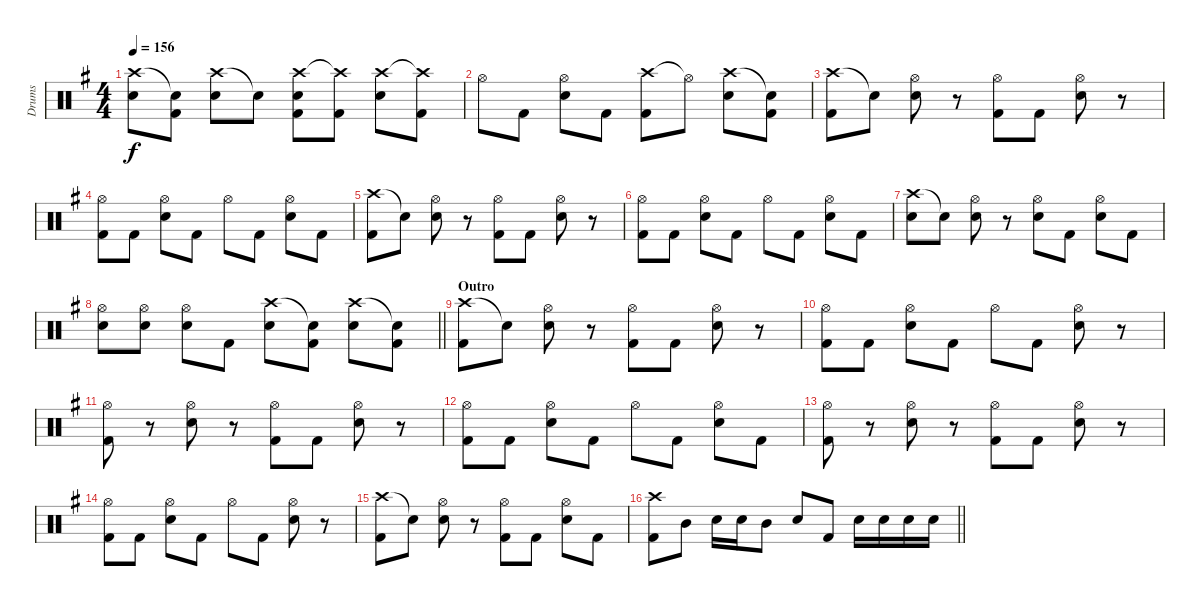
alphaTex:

\track ("Drums" "Drums") {instrument percussion}
\staff {score}
\articulation defaults
\ts (4 4)
\tempo 156
\clef neutral
\ks g
("Crash high (hit)" "Snare (hit) 2").8{dy f} ("Snare (hit)"{t} "Kick (hit) 2").8 ("Crash high (hit)" "Snare (hit) 2").8 "Snare (hit)"{t}.8 ("Crash high (hit)" "Snare (hit) 2" "Kick (hit) 2").8 ("Crash high (hit)"{t} "Kick (hit) 2").8 ("Crash high (hit)" "Snare (hit) 2").8 ("Crash high (hit)"{t} "Kick (hit) 2").8 |
"Hi-Hat (open)".8 "Kick (hit) 2".8 ("Hi-Hat (open)" "Snare (hit) 2").8 "Kick (hit) 2".8 ("Crash high (hit)" "Kick (hit) 2").8 "Hi-Hat (open)"{t}.8 ("Crash high (hit)" "Snare (hit) 2").8 ("Snare (hit)"{t} "Kick (hit) 2").8 |
("Crash high (hit)" "Kick (hit) 2").8 "Snare (hit)"{t}.8 ("Hi-Hat (open)" "Snare (hit) 2").8 r.8 ("Hi-Hat (open)" "Kick (hit) 2").8 "Kick (hit) 2".8 ("Hi-Hat (open)" "Snare (hit) 2").8 r.8 |
("Hi-Hat (open)" "Kick (hit) 2").8 "Kick (hit) 2".8 ("Hi-Hat (open)" "Snare (hit) 2").8 "Kick (hit) 2".8 "Hi-Hat (open)".8 "Kick (hit) 2".8 ("Hi-Hat (open)" "Snare (hit) 2").8 "Kick (hit) 2".8 |
("Crash high (hit)" "Kick (hit) 2").8 "Snare (hit)"{t}.8 ("Hi-Hat (open)" "Snare (hit) 2").8 r.8 ("Hi-Hat (open)" "Kick (hit) 2").8 "Kick (hit) 2".8 ("Hi-Hat (open)" "Snare (hit) 2").8 r.8 |
("Hi-Hat (open)" "Kick (hit) 2").8 "Kick (hit) 2".8 ("Hi-Hat (open)" "Snare (hit) 2").8 "Kick (hit) 2".8 "Hi-Hat (open)".8 "Kick (hit) 2".8 ("Hi-Hat (open)" "Snare (hit) 2").8 "Kick (hit) 2".8 |
("Crash high (hit)" "Snare (hit) 2").8 "Snare (hit)"{t}.8 ("Hi-Hat (open)" "Snare (hit) 2").8 r.8 ("Hi-Hat (open)" "Snare (hit) 2").8 "Kick (hit) 2".8 ("Hi-Hat (open)" "Snare (hit) 2").8 "Kick (hit) 2".8 |
\barLineRight lightlight
("Hi-Hat (open)" "Snare (hit) 2").8 ("Hi-Hat (open)" "Snare (hit) 2").8 ("Hi-Hat (open)" "Snare (hit) 2").8 "Kick (hit) 2".8 ("Crash high (hit)" "Snare (hit) 2").8 ("Snare (hit)"{t} "Kick (hit) 2").8 ("Crash high (hit)" "Snare (hit) 2").8 ("Snare (hit)"{t} "Kick (hit) 2").8 |
\section ("" "Outro")
("Crash high (hit)" "Kick (hit) 2").8 "Snare (hit)"{t}.8 ("Hi-Hat (open)" "Snare (hit) 2").8 r.8 ("Hi-Hat (open)" "Kick (hit) 2").8 "Kick (hit) 2".8 ("Hi-Hat (open)" "Snare (hit) 2").8 r.8 |
("Hi-Hat (open)" "Kick (hit) 2").8 "Kick (hit) 2".8 ("Hi-Hat (open)" "Snare (hit) 2").8 "Kick (hit) 2".8 "Hi-Hat (open)".8 "Kick (hit) 2".8 ("Hi-Hat (open)" "Snare (hit) 2").8 r.8 |
("Hi-Hat (open)" "Kick (hit) 2").8 r.8 ("Hi-Hat (open)" "Snare (hit) 2").8 r.8 ("Hi-Hat (open)" "Kick (hit) 2").8 "Kick (hit) 2".8 ("Hi-Hat (open)" "Snare (hit) 2").8 r.8 |
("Hi-Hat (open)" "Kick (hit) 2").8 "Kick (hit) 2".8 ("Hi-Hat (open)" "Snare (hit) 2").8 "Kick (hit) 2".8 "Hi-Hat (open)".8 "Kick (hit) 2".8 ("Hi-Hat (open)" "Snare (hit) 2").8 "Kick (hit) 2".8 |
("Hi-Hat (open)" "Kick (hit) 2").8 r.8 ("Hi-Hat (open)" "Snare (hit) 2").8 r.8 ("Hi-Hat (open)" "Kick (hit) 2").8 "Kick (hit) 2".8 ("Hi-Hat (open)" "Snare (hit) 2").8 r.8 |
("Hi-Hat (open)" "Kick (hit) 2").8 "Kick (hit) 2".8 ("Hi-Hat (open)" "Snare (hit) 2").8 "Kick (hit) 2".8 "Hi-Hat (open)".8 "Kick (hit) 2".8 ("Hi-Hat (open)" "Snare (hit) 2").8 r.8 |
("Crash high (hit)" "Kick (hit) 2").8 "Snare (hit)"{t}.8 ("Hi-Hat (open)" "Snare (hit) 2").8 r.8 ("Hi-Hat (open)" "Kick (hit) 2").8 "Kick (hit) 2".8 ("Hi-Hat (open)" "Snare (hit) 2").8 "Kick (hit) 2".8 |
\barLineRight lightlight
("Crash high (hit)" "Kick (hit) 2").8 "Mid Tom (hit)".8 "Snare (hit) 2".16 "Snare (hit) 2".16 "Mid Tom (hit)".8 "Snare (hit) 2".8 "Kick (hit) 2".8 "Snare (hit) 2".16 "Snare (hit) 2".16 "Snare (hit) 2".16 "Snare (hit) 2".16
